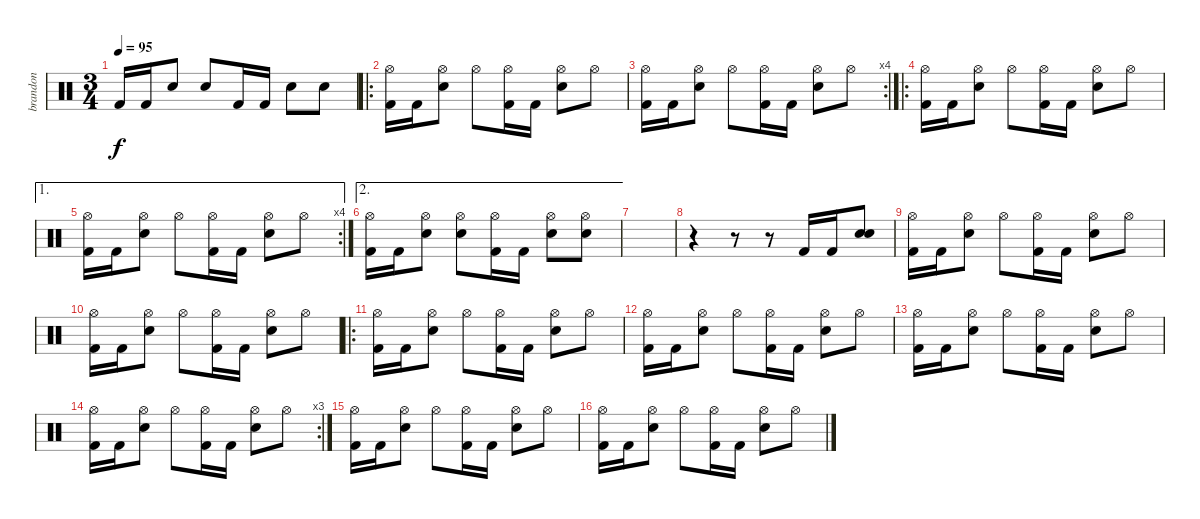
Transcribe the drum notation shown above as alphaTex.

\track ("brandon" "brandon") {instrument percussion}
\staff {score}
\articulation defaults
\ts (3 4)
\tempo 95
\clef neutral
\ks c "Kick (hit) 2".16{dy f} "Kick (hit) 2".16 "Snare (hit) 2".8 "Snare (hit) 2".8 "Kick (hit) 2".16 "Kick (hit) 2".16 "Snare (hit) 2".8 "Snare (hit) 2".8
|
\ro
("Hi-Hat (open)" "Kick (hit) 2").16 "Kick (hit) 2".16 ("Hi-Hat (open)" "Snare (hit) 2").8 "Hi-Hat (open)".8 ("Hi-Hat (open)" "Kick (hit) 2").16 "Kick (hit) 2".16 ("Hi-Hat (open)" "Snare (hit) 2").8 "Hi-Hat (open)".8 |
\rc 4
("Hi-Hat (open)" "Kick (hit) 2").16 "Kick (hit) 2".16 ("Hi-Hat (open)" "Snare (hit) 2").8 "Hi-Hat (open)".8 ("Hi-Hat (open)" "Kick (hit) 2").16 "Kick (hit) 2".16 ("Hi-Hat (open)" "Snare (hit) 2").8 "Hi-Hat (open)".8 |
\ro
("Hi-Hat (open)" "Kick (hit) 2").16 "Kick (hit) 2".16 ("Hi-Hat (open)" "Snare (hit) 2").8 "Hi-Hat (open)".8 ("Hi-Hat (open)" "Kick (hit) 2").16 "Kick (hit) 2".16 ("Hi-Hat (open)" "Snare (hit) 2").8 "Hi-Hat (open)".8 |
\ae 1
\rc 4
("Hi-Hat (open)" "Kick (hit) 2").16 "Kick (hit) 2".16 ("Hi-Hat (open)" "Snare (hit) 2").8 "Hi-Hat (open)".8 ("Hi-Hat (open)" "Kick (hit) 2").16 "Kick (hit) 2".16 ("Hi-Hat (open)" "Snare (hit) 2").8 "Hi-Hat (open)".8 |
\ae 2
("Hi-Hat (open)" "Kick (hit) 2").16 "Kick (hit) 2".16 ("Hi-Hat (open)" "Snare (hit) 2").8 ("Hi-Hat (open)" "Snare (hit) 2").8 ("Hi-Hat (open)" "Kick (hit) 2").16 "Kick (hit) 2".16 ("Hi-Hat (open)" "Snare (hit) 2").8 ("Hi-Hat (open)" "Snare (hit) 2").8 |
|
r.4 r.8 r.8 "Kick (hit) 2".16 "Kick (hit) 2".16 ("Snare (hit) 2" "Snare (hit) 2").8 |
("Hi-Hat (open)" "Kick (hit) 2").16 "Kick (hit) 2".16 ("Hi-Hat (open)" "Snare (hit) 2").8 "Hi-Hat (open)".8 ("Hi-Hat (open)" "Kick (hit) 2").16 "Kick (hit) 2".16 ("Hi-Hat (open)" "Snare (hit) 2").8 "Hi-Hat (open)".8 |
("Hi-Hat (open)" "Kick (hit) 2").16 "Kick (hit) 2".16 ("Hi-Hat (open)" "Snare (hit) 2").8 "Hi-Hat (open)".8 ("Hi-Hat (open)" "Kick (hit) 2").16 "Kick (hit) 2".16 ("Hi-Hat (open)" "Snare (hit) 2").8 "Hi-Hat (open)".8 |
\ro
("Hi-Hat (open)" "Kick (hit) 2").16 "Kick (hit) 2".16 ("Hi-Hat (open)" "Snare (hit) 2").8 "Hi-Hat (open)".8 ("Hi-Hat (open)" "Kick (hit) 2").16 "Kick (hit) 2".16 ("Hi-Hat (open)" "Snare (hit) 2").8 "Hi-Hat (open)".8 |
("Hi-Hat (open)" "Kick (hit) 2").16 "Kick (hit) 2".16 ("Hi-Hat (open)" "Snare (hit) 2").8 "Hi-Hat (open)".8 ("Hi-Hat (open)" "Kick (hit) 2").16 "Kick (hit) 2".16 ("Hi-Hat (open)" "Snare (hit) 2").8 "Hi-Hat (open)".8 |
("Hi-Hat (open)" "Kick (hit) 2").16 "Kick (hit) 2".16 ("Hi-Hat (open)" "Snare (hit) 2").8 "Hi-Hat (open)".8 ("Hi-Hat (open)" "Kick (hit) 2").16 "Kick (hit) 2".16 ("Hi-Hat (open)" "Snare (hit) 2").8 "Hi-Hat (open)".8 |
\rc 3
("Hi-Hat (open)" "Kick (hit) 2").16 "Kick (hit) 2".16 ("Hi-Hat (open)" "Snare (hit) 2").8 "Hi-Hat (open)".8 ("Hi-Hat (open)" "Kick (hit) 2").16 "Kick (hit) 2".16 ("Hi-Hat (open)" "Snare (hit) 2").8 "Hi-Hat (open)".8 |
("Hi-Hat (open)" "Kick (hit) 2").16 "Kick (hit) 2".16 ("Hi-Hat (open)" "Snare (hit) 2").8 "Hi-Hat (open)".8 ("Hi-Hat (open)" "Kick (hit) 2").16 "Kick (hit) 2".16 ("Hi-Hat (open)" "Snare (hit) 2").8 "Hi-Hat (open)".8 |
("Hi-Hat (open)" "Kick (hit) 2").16 "Kick (hit) 2".16 ("Hi-Hat (open)" "Snare (hit) 2").8 "Hi-Hat (open)".8 ("Hi-Hat (open)" "Kick (hit) 2").16 "Kick (hit) 2".16 ("Hi-Hat (open)" "Snare (hit) 2").8 "Hi-Hat (open)".8
